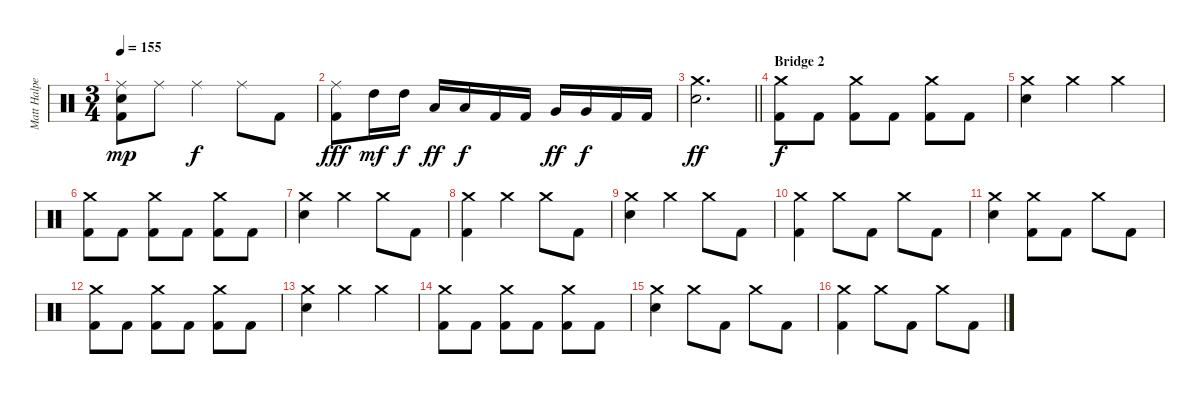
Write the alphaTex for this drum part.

\track ("Matt Halpern - Drums" "Matt Halpe") {instrument percussion}
\staff {score}
\articulation defaults
\ts (3 4)
\tempo 155
\clef neutral
\ks c
("Ride (middle)" "Electric Snare (hit)" "Kick (hit) 2").8{dy mp} "Ride (middle)".8 "Ride (middle)".4{dy f} "Ride (middle)".8 "Kick (hit) 2".8 |
("Ride (middle)" "Kick (hit) 2").8{dy fff} "High Tom (hit)".16{dy mf} "High Tom (hit)".16{dy f} "Low Tom (hit)".16{dy ff} "Low Tom (hit)".16{dy f} "Kick (hit) 2".16 "Kick (hit) 2".16 "Very Low Tom (hit)".16{dy ff} "Very Low Tom (hit)".16{dy f} "Kick (hit) 2".16 "Kick (hit) 2".16 |
\barLineRight lightlight
("Crash medium (hit)" "Electric Snare (hit)").2{d dy ff} |
\section ("" "Bridge 2")
("Crash medium (hit)" "Kick (hit) 2").8{dy f} "Kick (hit) 2".8 ("Crash medium (hit)" "Kick (hit) 2").8 "Kick (hit) 2".8 ("Crash medium (hit)" "Kick (hit) 2").8 "Kick (hit) 2".8 |
("Crash medium (hit)" "Electric Snare (hit)").4 "Crash medium (hit)".4 "Crash medium (hit)".4 |
("Crash medium (hit)" "Kick (hit) 2").8 "Kick (hit) 2".8 ("Crash medium (hit)" "Kick (hit) 2").8 "Kick (hit) 2".8 ("Crash medium (hit)" "Kick (hit) 2").8 "Kick (hit) 2".8 |
("Crash medium (hit)" "Electric Snare (hit)").4 "Crash medium (hit)".4 "Crash medium (hit)".8 "Kick (hit) 2".8 |
("Crash medium (hit)" "Kick (hit) 2").4 "Crash medium (hit)".4 "Crash medium (hit)".8 "Kick (hit) 2".8 |
("Crash medium (hit)" "Electric Snare (hit)").4 "Crash medium (hit)".4 "Crash medium (hit)".8 "Kick (hit) 2".8 |
("Crash medium (hit)" "Kick (hit) 2").4 "Crash medium (hit)".8 "Kick (hit) 2".8 "Crash medium (hit)".8 "Kick (hit) 2".8 |
("Crash medium (hit)" "Electric Snare (hit)").4 ("Crash medium (hit)" "Kick (hit) 2").8 "Kick (hit) 2".8 "Crash medium (hit)".8 "Kick (hit) 2".8 |
("Crash medium (hit)" "Kick (hit) 2").8 "Kick (hit) 2".8 ("Crash medium (hit)" "Kick (hit) 2").8 "Kick (hit) 2".8 ("Crash medium (hit)" "Kick (hit) 2").8 "Kick (hit) 2".8 |
("Crash medium (hit)" "Electric Snare (hit)").4 "Crash medium (hit)".4 "Crash medium (hit)".4 |
("Crash medium (hit)" "Kick (hit) 2").8 "Kick (hit) 2".8 ("Crash medium (hit)" "Kick (hit) 2").8 "Kick (hit) 2".8 ("Crash medium (hit)" "Kick (hit) 2").8 "Kick (hit) 2".8 |
("Crash medium (hit)" "Electric Snare (hit)").4 "Crash medium (hit)".8 "Kick (hit) 2".8 "Crash medium (hit)".8 "Kick (hit) 2".8 |
("Crash medium (hit)" "Kick (hit) 2").4 "Crash medium (hit)".8 "Kick (hit) 2".8 "Crash medium (hit)".8 "Kick (hit) 2".8
